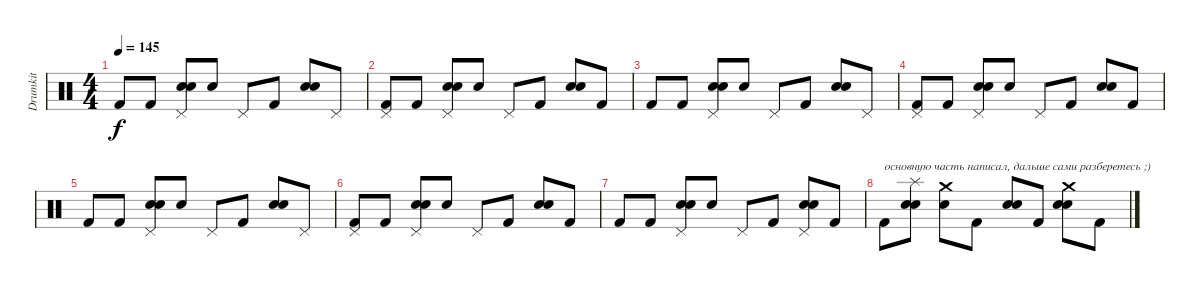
\track ("Drumkit" "Drumkit") {instrument percussion}
\staff {score}
\articulation defaults
\ts (4 4)
\tempo 145
\clef neutral
\ks c "Kick (hit) 2".8{dy f} "Kick (hit) 2".8
("Pedal Hi-Hat (hit)" "Electric Snare (hit)" "Snare (hit) 2").8 "Electric Snare (hit)".8 "Pedal Hi-Hat (hit)".8 "Kick (hit) 2".8 ("Electric Snare (hit)" "Snare (hit) 2").8 "Pedal Hi-Hat (hit)".8 |
("Pedal Hi-Hat (hit)" "Kick (hit) 2").8 "Kick (hit) 2".8 ("Pedal Hi-Hat (hit)" "Electric Snare (hit)" "Snare (hit) 2").8 "Electric Snare (hit)".8 "Pedal Hi-Hat (hit)".8 "Kick (hit) 2".8 ("Electric Snare (hit)" "Snare (hit) 2").8 "Kick (hit) 2".8 |
"Kick (hit) 2".8 "Kick (hit) 2".8 ("Pedal Hi-Hat (hit)" "Electric Snare (hit)" "Snare (hit) 2").8 "Electric Snare (hit)".8 "Pedal Hi-Hat (hit)".8 "Kick (hit) 2".8 ("Electric Snare (hit)" "Snare (hit) 2").8 "Pedal Hi-Hat (hit)".8 |
("Pedal Hi-Hat (hit)" "Kick (hit) 2").8 "Kick (hit) 2".8 ("Pedal Hi-Hat (hit)" "Electric Snare (hit)" "Snare (hit) 2").8 "Electric Snare (hit)".8 "Pedal Hi-Hat (hit)".8 "Kick (hit) 2".8 ("Electric Snare (hit)" "Snare (hit) 2").8 "Kick (hit) 2".8 |
"Kick (hit) 2".8 "Kick (hit) 2".8 ("Pedal Hi-Hat (hit)" "Electric Snare (hit)" "Snare (hit) 2").8 "Electric Snare (hit)".8 "Pedal Hi-Hat (hit)".8 "Kick (hit) 2".8 ("Electric Snare (hit)" "Snare (hit) 2").8 "Pedal Hi-Hat (hit)".8 |
("Pedal Hi-Hat (hit)" "Kick (hit) 2").8 "Kick (hit) 2".8 ("Pedal Hi-Hat (hit)" "Electric Snare (hit)" "Snare (hit) 2").8 "Electric Snare (hit)".8 "Pedal Hi-Hat (hit)".8 "Kick (hit) 2".8 ("Electric Snare (hit)" "Snare (hit) 2").8 "Kick (hit) 2".8 |
"Kick (hit) 2".8 "Kick (hit) 2".8 ("Pedal Hi-Hat (hit)" "Electric Snare (hit)" "Snare (hit) 2").8 "Electric Snare (hit)".8 "Pedal Hi-Hat (hit)".8 "Kick (hit) 2".8 ("Pedal Hi-Hat (hit)" "Electric Snare (hit)" "Snare (hit) 2").8 "Kick (hit) 2".8 |
"Kick (hit) 2".8{txt "основную часть написал, дальше сами разберетесь ;)"} ("Splash (hit)" "Electric Snare (hit)" "Snare (hit) 2").8 ("Crash medium (hit)" "Electric Snare (hit)").8 "Kick (hit) 2".8 ("Electric Snare (hit)" "Snare (hit) 2").8 "Kick (hit) 2".8 ("Crash medium (hit)" "Electric Snare (hit)" "Snare (hit) 2").8 "Kick (hit) 2".8
